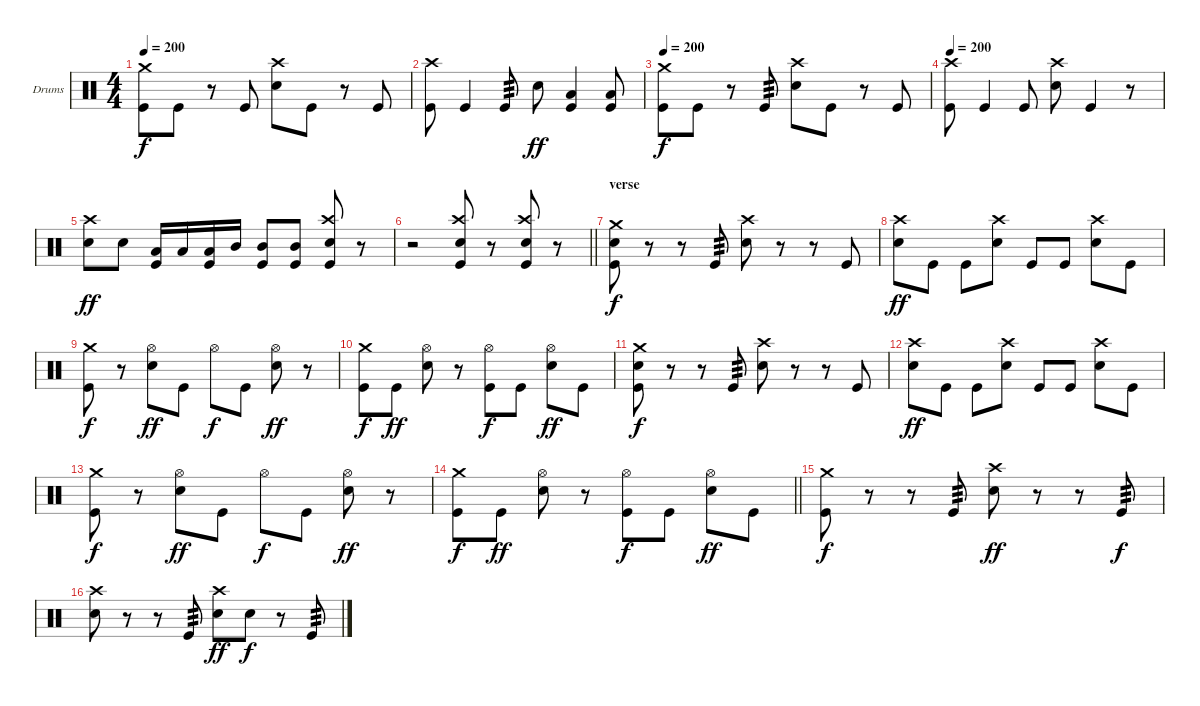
\bracketExtendMode groupsimilarinstruments
\firstSystemTrackNameOrientation horizontal
\otherSystemsTrackNameOrientation horizontal
\track ("Drumkit" "Drums") {instrument percussion}
\staff {score}
\articulation defaults
\ts (4 4)
\tempo 200
\clef neutral
\ks c
("Crash medium (hit)" "Kick (hit)").8{dy f} "Kick (hit)".8 r.8 "Kick (hit)".8 ("Crash high (hit)" "Snare (hit) 2").8 "Kick (hit)".8 r.8 "Kick (hit)".8 |
("Crash high (hit)" "Kick (hit)").8 "Kick (hit)".4 "Kick (hit)".8{tp 3} "Snare (hit) 2".8{dy ff} ("Low Tom (hit)" "Kick (hit)").4 ("Low Tom (hit)" "Kick (hit)").8 |
\tempo 200
("Crash medium (hit)" "Kick (hit)").8{dy f} "Kick (hit)".8 r.8 "Kick (hit)".8{tp 3} ("Crash high (hit)" "Snare (hit) 2").8 "Kick (hit)".8 r.8 "Kick (hit)".8 |
\tempo 200
("Crash high (hit)" "Kick (hit)").8 "Kick (hit)".4 "Kick (hit)".8 ("Crash high (hit)" "Snare (hit) 2").8 "Kick (hit)".4 r.8 |
("Crash high (hit)" "Snare (hit) 2").8{dy ff} "Snare (hit) 2".8 ("Low Tom (hit)" "Kick (hit)").16 "Low Tom (hit)".16 ("Low Tom (hit)" "Kick (hit)").16 "Mid Tom (hit)".16 ("Mid Tom (hit)" "Kick (hit)").8 ("Mid Tom (hit)" "Kick (hit)").8 ("Crash high (hit)" "Snare (hit) 2" "Kick (hit)").8 r.8 |
\barLineRight lightlight
r.2 ("Crash high (hit)" "Snare (hit) 2" "Kick (hit)").8 r.8 ("Crash high (hit)" "Snare (hit) 2" "Kick (hit)").8 r.8 |
\section ("" "verse")
("Crash medium (hit)" "Snare (hit) 2" "Kick (hit)").8{dy f} r.8 r.8 "Kick (hit)".8{tp 3} ("Crash high (hit)" "Snare (hit) 2").8 r.8 r.8 "Kick (hit)".8 |
("Crash high (hit)" "Snare (hit) 2").8{dy ff} "Kick (hit)".8 "Kick (hit)".8 ("Crash high (hit)" "Snare (hit) 2").8 "Kick (hit)".8 "Kick (hit)".8 ("Crash high (hit)" "Snare (hit) 2").8 "Kick (hit)".8 |
("Crash medium (hit)" "Kick (hit)").8{dy f} r.8 ("Hi-Hat (open)" "Snare (hit) 2").8{dy ff} "Kick (hit)".8 "Hi-Hat (open)".8{dy f} "Kick (hit)".8 ("Hi-Hat (open)" "Snare (hit) 2").8{dy ff} r.8 |
("Crash medium (hit)" "Kick (hit)").8{dy f} "Kick (hit)".8{dy ff} ("Hi-Hat (open)" "Snare (hit) 2").8 r.8 ("Hi-Hat (open)" "Kick (hit)").8{dy f} "Kick (hit)".8 ("Hi-Hat (open)" "Snare (hit) 2").8{dy ff} "Kick (hit)".8 |
("Crash medium (hit)" "Snare (hit) 2" "Kick (hit)").8{dy f} r.8 r.8 "Kick (hit)".8{tp 3} ("Crash high (hit)" "Snare (hit) 2").8 r.8 r.8 "Kick (hit)".8 |
("Crash high (hit)" "Snare (hit) 2").8{dy ff} "Kick (hit)".8 "Kick (hit)".8 ("Crash high (hit)" "Snare (hit) 2").8 "Kick (hit)".8 "Kick (hit)".8 ("Crash high (hit)" "Snare (hit) 2").8 "Kick (hit)".8 |
("Crash medium (hit)" "Kick (hit)").8{dy f} r.8 ("Hi-Hat (open)" "Snare (hit) 2").8{dy ff} "Kick (hit)".8 "Hi-Hat (open)".8{dy f} "Kick (hit)".8 ("Hi-Hat (open)" "Snare (hit) 2").8{dy ff} r.8 |
\barLineRight lightlight
("Crash medium (hit)" "Kick (hit)").8{dy f} "Kick (hit)".8{dy ff} ("Hi-Hat (open)" "Snare (hit) 2").8 r.8 ("Hi-Hat (open)" "Kick (hit)").8{dy f} "Kick (hit)".8 ("Hi-Hat (open)" "Snare (hit) 2").8{dy ff} "Kick (hit)".8 |
\section ("" "")
("Crash medium (hit)" "Kick (hit)").8{dy f} r.8 r.8 "Kick (hit)".8{tp 3} ("Crash high (hit)" "Snare (hit) 2").8{dy ff} r.8 r.8 "Kick (hit)".8{tp 3 dy f} |
("Crash high (hit)" "Snare (hit) 2").8 r.8 r.8 "Kick (hit)".8{tp 3} ("Crash high (hit)" "Snare (hit) 2").8{dy ff} "Snare (hit) 2".8{dy f} r.8 "Kick (hit)".8{tp 3}
